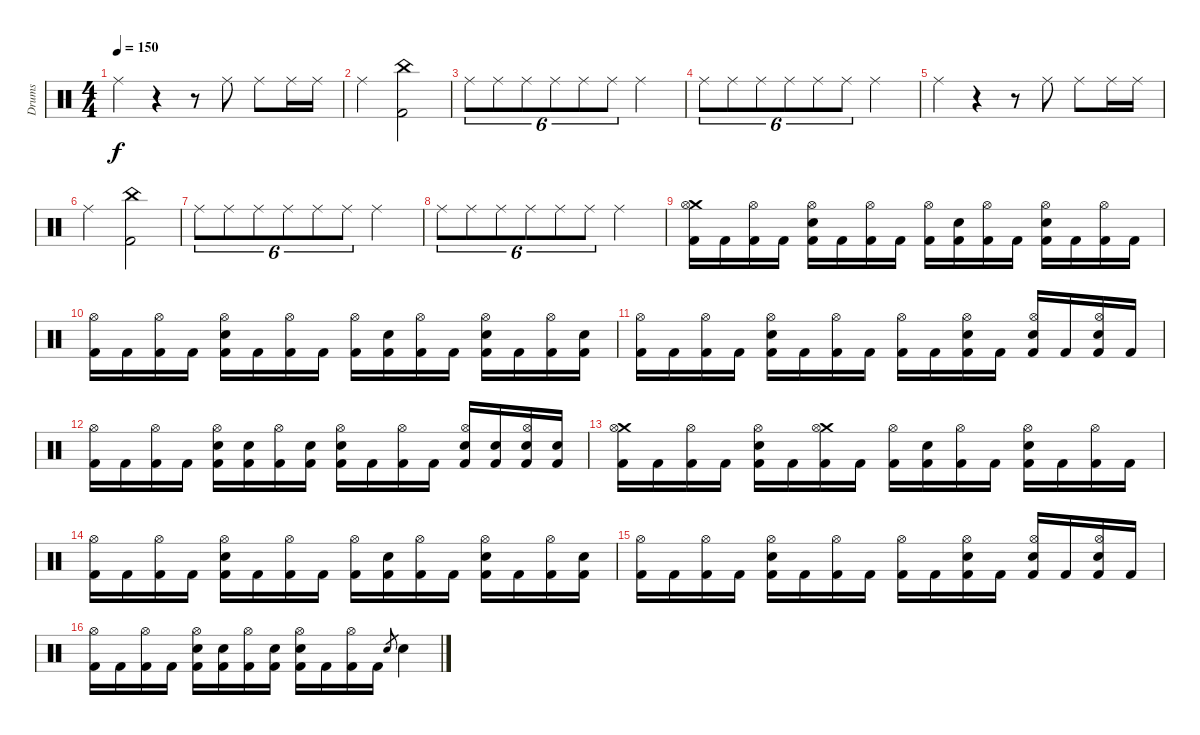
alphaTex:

\track ("Drums" "Drums") {instrument percussion}
\staff {score}
\articulation defaults
\ts (4 4)
\tempo 150
\clef neutral
\ks c "Ride (middle)".4{dy f}
r.4 r.8 "Ride (middle)".8 "Ride (middle)".8 "Ride (middle)".16 "Ride (middle)".16 |
"Ride (middle)".2 ("China (hit)" "Kick (hit) 2").2 |
"Ride (middle)".8{tu (6 4)} "Ride (middle)".8{tu (6 4)} "Ride (middle)".8{tu (6 4)} "Ride (middle)".8{tu (6 4)} "Ride (middle)".8{tu (6 4)} "Ride (middle)".8{tu (6 4)} "Ride (middle)".2 |
"Ride (middle)".8{tu (6 4)} "Ride (middle)".8{tu (6 4)} "Ride (middle)".8{tu (6 4)} "Ride (middle)".8{tu (6 4)} "Ride (middle)".8{tu (6 4)} "Ride (middle)".8{tu (6 4)} "Ride (middle)".2 |
"Ride (middle)".4 r.4 r.8 "Ride (middle)".8 "Ride (middle)".8 "Ride (middle)".16 "Ride (middle)".16 |
"Ride (middle)".2 ("China (hit)" "Kick (hit) 2").2 |
"Ride (middle)".8{tu (6 4)} "Ride (middle)".8{tu (6 4)} "Ride (middle)".8{tu (6 4)} "Ride (middle)".8{tu (6 4)} "Ride (middle)".8{tu (6 4)} "Ride (middle)".8{tu (6 4)} "Ride (middle)".2 |
"Ride (middle)".8{tu (6 4)} "Ride (middle)".8{tu (6 4)} "Ride (middle)".8{tu (6 4)} "Ride (middle)".8{tu (6 4)} "Ride (middle)".8{tu (6 4)} "Ride (middle)".8{tu (6 4)} "Ride (middle)".2 |
("Crash medium (hit)" "Hi-Hat (open)" "Kick (hit) 2").16 "Kick (hit) 2".16 ("Hi-Hat (open)" "Kick (hit) 2").16 "Kick (hit) 2".16 ("Hi-Hat (open)" "Electric Snare (hit)" "Kick (hit) 2").16 "Kick (hit) 2".16 ("Hi-Hat (open)" "Kick (hit) 2").16 "Kick (hit) 2".16 ("Hi-Hat (open)" "Kick (hit) 2").16 ("Electric Snare (hit)" "Kick (hit) 2").16 ("Hi-Hat (open)" "Kick (hit) 2").16 "Kick (hit) 2".16 ("Hi-Hat (open)" "Electric Snare (hit)" "Kick (hit) 2").16 "Kick (hit) 2".16 ("Hi-Hat (open)" "Kick (hit) 2").16 "Kick (hit) 2".16 |
("Hi-Hat (open)" "Kick (hit) 2").16 "Kick (hit) 2".16 ("Hi-Hat (open)" "Kick (hit) 2").16 "Kick (hit) 2".16 ("Hi-Hat (open)" "Electric Snare (hit)" "Kick (hit) 2").16 "Kick (hit) 2".16 ("Hi-Hat (open)" "Kick (hit) 2").16 "Kick (hit) 2".16 ("Hi-Hat (open)" "Kick (hit) 2").16 ("Electric Snare (hit)" "Kick (hit) 2").16 ("Hi-Hat (open)" "Kick (hit) 2").16 "Kick (hit) 2".16 ("Hi-Hat (open)" "Electric Snare (hit)" "Kick (hit) 2").16 "Kick (hit) 2".16 ("Hi-Hat (open)" "Kick (hit) 2").16 ("Electric Snare (hit)" "Kick (hit) 2").16 |
("Hi-Hat (open)" "Kick (hit) 2").16 "Kick (hit) 2".16 ("Hi-Hat (open)" "Kick (hit) 2").16 "Kick (hit) 2".16 ("Hi-Hat (open)" "Electric Snare (hit)" "Kick (hit) 2").16 "Kick (hit) 2".16 ("Hi-Hat (open)" "Kick (hit) 2").16 "Kick (hit) 2".16 ("Hi-Hat (open)" "Kick (hit) 2").16 "Kick (hit) 2".16 ("Hi-Hat (open)" "Electric Snare (hit)" "Kick (hit) 2").16 "Kick (hit) 2".16 ("Hi-Hat (open)" "Electric Snare (hit)" "Kick (hit) 2").16 "Kick (hit) 2".16 ("Hi-Hat (open)" "Electric Snare (hit)" "Kick (hit) 2").16 "Kick (hit) 2".16 |
("Hi-Hat (open)" "Kick (hit) 2").16 "Kick (hit) 2".16 ("Hi-Hat (open)" "Kick (hit) 2").16 "Kick (hit) 2".16 ("Hi-Hat (open)" "Electric Snare (hit)" "Kick (hit) 2").16 ("Electric Snare (hit)" "Kick (hit) 2").16 ("Hi-Hat (open)" "Kick (hit) 2").16 ("Electric Snare (hit)" "Kick (hit) 2").16 ("Hi-Hat (open)" "Electric Snare (hit)" "Kick (hit) 2").16 "Kick (hit) 2".16 ("Hi-Hat (open)" "Kick (hit) 2").16 "Kick (hit) 2".16 ("Hi-Hat (open)" "Electric Snare (hit)" "Kick (hit) 2").16 ("Electric Snare (hit)" "Kick (hit) 2").16 ("Hi-Hat (open)" "Electric Snare (hit)" "Kick (hit) 2").16 ("Electric Snare (hit)" "Kick (hit) 2").16 |
("Crash medium (hit)" "Hi-Hat (open)" "Kick (hit) 2").16 "Kick (hit) 2".16 ("Hi-Hat (open)" "Kick (hit) 2").16 "Kick (hit) 2".16 ("Hi-Hat (open)" "Electric Snare (hit)" "Kick (hit) 2").16 "Kick (hit) 2".16 ("Crash medium (hit)" "Hi-Hat (open)" "Kick (hit) 2").16 "Kick (hit) 2".16 ("Hi-Hat (open)" "Kick (hit) 2").16 ("Electric Snare (hit)" "Kick (hit) 2").16 ("Hi-Hat (open)" "Kick (hit) 2").16 "Kick (hit) 2".16 ("Hi-Hat (open)" "Electric Snare (hit)" "Kick (hit) 2").16 "Kick (hit) 2".16 ("Hi-Hat (open)" "Kick (hit) 2").16 "Kick (hit) 2".16 |
("Hi-Hat (open)" "Kick (hit) 2").16 "Kick (hit) 2".16 ("Hi-Hat (open)" "Kick (hit) 2").16 "Kick (hit) 2".16 ("Hi-Hat (open)" "Electric Snare (hit)" "Kick (hit) 2").16 "Kick (hit) 2".16 ("Hi-Hat (open)" "Kick (hit) 2").16 "Kick (hit) 2".16 ("Hi-Hat (open)" "Kick (hit) 2").16 ("Electric Snare (hit)" "Kick (hit) 2").16 ("Hi-Hat (open)" "Kick (hit) 2").16 "Kick (hit) 2".16 ("Hi-Hat (open)" "Electric Snare (hit)" "Kick (hit) 2").16 "Kick (hit) 2".16 ("Hi-Hat (open)" "Kick (hit) 2").16 ("Electric Snare (hit)" "Kick (hit) 2").16 |
("Hi-Hat (open)" "Kick (hit) 2").16 "Kick (hit) 2".16 ("Hi-Hat (open)" "Kick (hit) 2").16 "Kick (hit) 2".16 ("Hi-Hat (open)" "Electric Snare (hit)" "Kick (hit) 2").16 "Kick (hit) 2".16 ("Hi-Hat (open)" "Kick (hit) 2").16 "Kick (hit) 2".16 ("Hi-Hat (open)" "Kick (hit) 2").16 "Kick (hit) 2".16 ("Hi-Hat (open)" "Electric Snare (hit)" "Kick (hit) 2").16 "Kick (hit) 2".16 ("Hi-Hat (open)" "Electric Snare (hit)" "Kick (hit) 2").16 "Kick (hit) 2".16 ("Hi-Hat (open)" "Electric Snare (hit)" "Kick (hit) 2").16 "Kick (hit) 2".16 |
("Hi-Hat (open)" "Kick (hit) 2").16 "Kick (hit) 2".16 ("Hi-Hat (open)" "Kick (hit) 2").16 "Kick (hit) 2".16 ("Hi-Hat (open)" "Electric Snare (hit)" "Kick (hit) 2").16 ("Electric Snare (hit)" "Kick (hit) 2").16 ("Hi-Hat (open)" "Kick (hit) 2").16 ("Electric Snare (hit)" "Kick (hit) 2").16 ("Hi-Hat (open)" "Electric Snare (hit)" "Kick (hit) 2").16 "Kick (hit) 2".16 ("Hi-Hat (open)" "Kick (hit) 2").16 "Kick (hit) 2".16 "Electric Snare (hit)".8{gr} "Electric Snare (hit)".4
